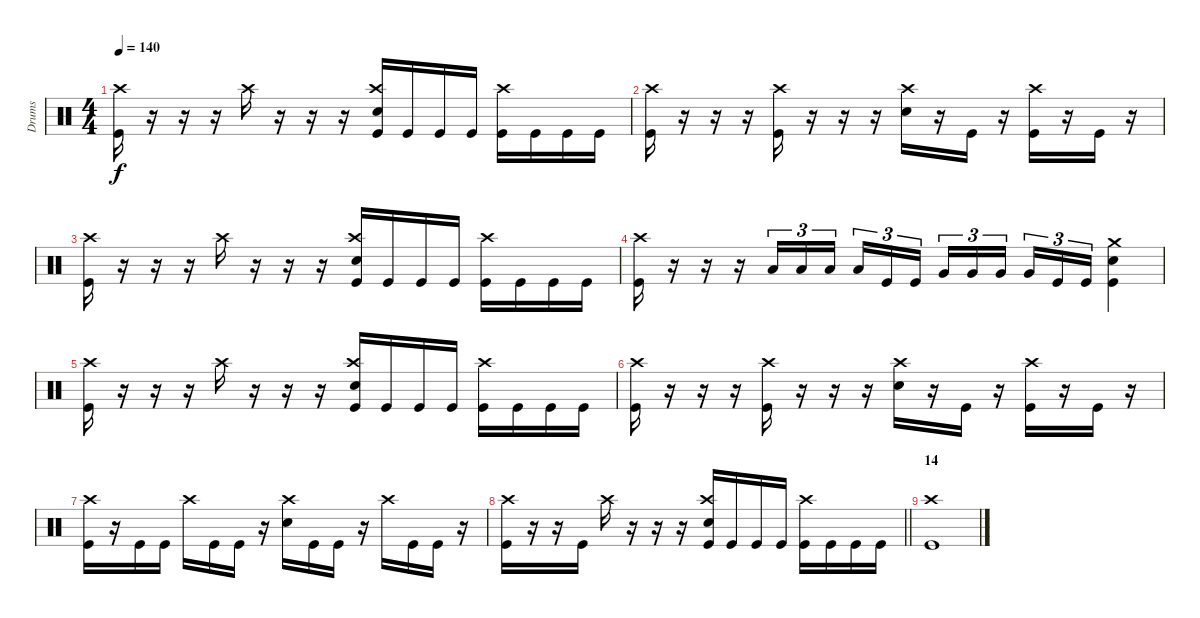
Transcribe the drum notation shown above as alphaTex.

\track ("Drums" "Drums") {instrument percussion}
\staff {score}
\articulation defaults
\ts (4 4)
\tempo 140
\clef neutral
\ks c
("Kick (hit)" "Crash high (hit)").16{dy f} r.16 r.16 r.16 "Crash high (hit)".16 r.16 r.16 r.16 ("Kick (hit)" "Snare (hit) 2" "Crash high (hit)").16 "Kick (hit)".16 "Kick (hit)".16 "Kick (hit)".16 ("Kick (hit)" "Crash high (hit)").16 "Kick (hit)".16 "Kick (hit)".16 "Kick (hit)".16 |
("Kick (hit)" "Crash high (hit)").16 r.16 r.16 r.16 ("Kick (hit)" "Crash high (hit)").16 r.16 r.16 r.16 ("Snare (hit) 2" "Crash high (hit)").16 r.16 "Kick (hit)".16 r.16 ("Kick (hit)" "Crash high (hit)").16 r.16 "Kick (hit)".16 r.16 |
("Kick (hit)" "Crash high (hit)").16 r.16 r.16 r.16 "Crash high (hit)".16 r.16 r.16 r.16 ("Kick (hit)" "Snare (hit) 2" "Crash high (hit)").16 "Kick (hit)".16 "Kick (hit)".16 "Kick (hit)".16 ("Kick (hit)" "Crash high (hit)").16 "Kick (hit)".16 "Kick (hit)".16 "Kick (hit)".16 |
("Kick (hit)" "Crash high (hit)").16 r.16 r.16 r.16 "Low Tom (hit)".16{tu (3 2)} "Low Tom (hit)".16{tu (3 2)} "Low Tom (hit)".16{tu (3 2) beam splitsecondary} "Low Tom (hit)".16{tu (3 2)} "Kick (hit)".16{tu (3 2)} "Kick (hit)".16{tu (3 2)} "Very Low Tom (hit)".16{tu (3 2)} "Very Low Tom (hit)".16{tu (3 2)} "Very Low Tom (hit)".16{tu (3 2) beam splitsecondary} "Very Low Tom (hit)".16{tu (3 2)} "Kick (hit)".16{tu (3 2)} "Kick (hit)".16{tu (3 2)} ("Kick (hit)" "Snare (hit) 2" "Crash medium (hit)").4 |
("Kick (hit)" "Crash high (hit)").16 r.16 r.16 r.16 "Crash high (hit)".16 r.16 r.16 r.16 ("Kick (hit)" "Snare (hit) 2" "Crash high (hit)").16 "Kick (hit)".16 "Kick (hit)".16 "Kick (hit)".16 ("Kick (hit)" "Crash high (hit)").16 "Kick (hit)".16 "Kick (hit)".16 "Kick (hit)".16 |
("Kick (hit)" "Crash high (hit)").16 r.16 r.16 r.16 ("Kick (hit)" "Crash high (hit)").16 r.16 r.16 r.16 ("Snare (hit) 2" "Crash high (hit)").16 r.16 "Kick (hit)".16 r.16 ("Kick (hit)" "Crash high (hit)").16 r.16 "Kick (hit)".16 r.16 |
("Kick (hit)" "Crash high (hit)").16 r.16 "Kick (hit)".16 "Kick (hit)".16 "Crash high (hit)".16 "Kick (hit)".16 "Kick (hit)".16 r.16 ("Snare (hit) 2" "Crash high (hit)").16 "Kick (hit)".16 "Kick (hit)".16 r.16 "Crash high (hit)".16 "Kick (hit)".16 "Kick (hit)".16 r.16 |
\barLineRight lightlight
("Kick (hit)" "Crash high (hit)").16 r.16 r.16 "Kick (hit)".16 "Crash high (hit)".16 r.16 r.16 r.16 ("Kick (hit)" "Snare (hit) 2" "Crash high (hit)").16 "Kick (hit)".16 "Kick (hit)".16 "Kick (hit)".16 ("Kick (hit)" "Crash high (hit)").16 "Kick (hit)".16 "Kick (hit)".16 "Kick (hit)".16 |
\section ("" "14")
("Kick (hit)" "Crash high (hit)").1
